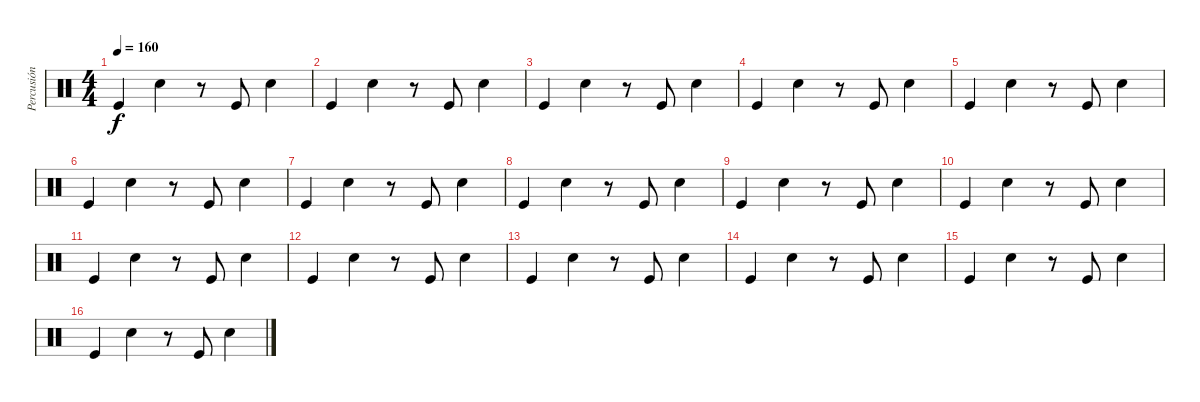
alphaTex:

\track ("Percusión" "Percusión") {instrument percussion}
\staff {score}
\articulation defaults
\ts (4 4)
\tempo 160
\clef neutral
\ks c "Kick (hit)".4{dy f} "Snare (hit) 2".4
r.8 "Kick (hit)".8 "Snare (hit) 2".4 |
"Kick (hit)".4 "Snare (hit) 2".4 r.8 "Kick (hit)".8 "Snare (hit) 2".4 |
"Kick (hit)".4 "Snare (hit) 2".4 r.8 "Kick (hit)".8 "Snare (hit) 2".4 |
"Kick (hit)".4 "Snare (hit) 2".4 r.8 "Kick (hit)".8 "Snare (hit) 2".4 |
"Kick (hit)".4 "Snare (hit) 2".4 r.8 "Kick (hit)".8 "Snare (hit) 2".4 |
"Kick (hit)".4 "Snare (hit) 2".4 r.8 "Kick (hit)".8 "Snare (hit) 2".4 |
"Kick (hit)".4 "Snare (hit) 2".4 r.8 "Kick (hit)".8 "Snare (hit) 2".4 |
"Kick (hit)".4 "Snare (hit) 2".4 r.8 "Kick (hit)".8 "Snare (hit) 2".4 |
"Kick (hit)".4 "Snare (hit) 2".4 r.8 "Kick (hit)".8 "Snare (hit) 2".4 |
"Kick (hit)".4 "Snare (hit) 2".4 r.8 "Kick (hit)".8 "Snare (hit) 2".4 |
"Kick (hit)".4 "Snare (hit) 2".4 r.8 "Kick (hit)".8 "Snare (hit) 2".4 |
"Kick (hit)".4 "Snare (hit) 2".4 r.8 "Kick (hit)".8 "Snare (hit) 2".4 |
"Kick (hit)".4 "Snare (hit) 2".4 r.8 "Kick (hit)".8 "Snare (hit) 2".4 |
"Kick (hit)".4 "Snare (hit) 2".4 r.8 "Kick (hit)".8 "Snare (hit) 2".4 |
"Kick (hit)".4 "Snare (hit) 2".4 r.8 "Kick (hit)".8 "Snare (hit) 2".4 |
"Kick (hit)".4 "Snare (hit) 2".4 r.8 "Kick (hit)".8 "Snare (hit) 2".4
